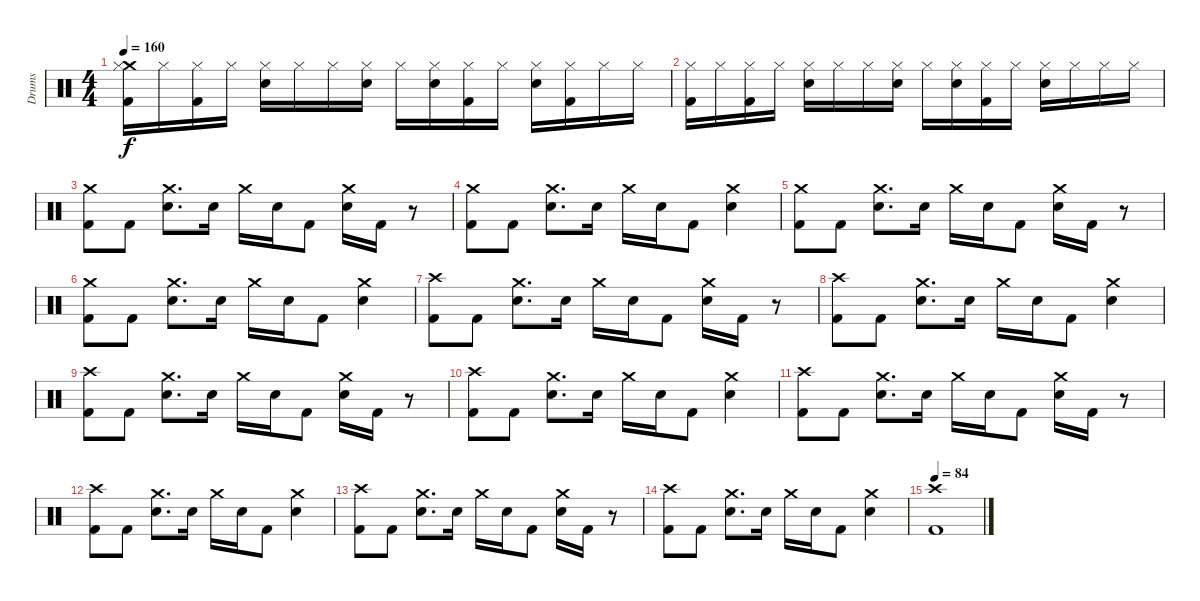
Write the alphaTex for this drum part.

\track ("Drums" "Drums") {instrument percussion}
\staff {score}
\articulation defaults
\ts (4 4)
\tempo 160
\clef neutral
\ks c
("Crash medium (hit)" "Kick (hit) 2" "Hi-Hat (closed)").16{dy f} "Hi-Hat (closed)".16 ("Kick (hit) 2" "Hi-Hat (closed)").16 "Hi-Hat (closed)".16 ("Hi-Hat (closed)" "Electric Snare (hit)").16 "Hi-Hat (closed)".16 "Hi-Hat (closed)".16 ("Electric Snare (hit)" "Hi-Hat (closed)").16 "Hi-Hat (closed)".16 ("Electric Snare (hit)" "Hi-Hat (closed)").16 ("Kick (hit) 2" "Hi-Hat (closed)").16 "Hi-Hat (closed)".16 ("Electric Snare (hit)" "Hi-Hat (closed)").16 ("Kick (hit) 2" "Hi-Hat (closed)").16 "Hi-Hat (closed)".16 "Hi-Hat (closed)".16 |
("Kick (hit) 2" "Hi-Hat (closed)").16 "Hi-Hat (closed)".16 ("Kick (hit) 2" "Hi-Hat (closed)").16 "Hi-Hat (closed)".16 ("Hi-Hat (closed)" "Electric Snare (hit)").16 "Hi-Hat (closed)".16 "Hi-Hat (closed)".16 ("Electric Snare (hit)" "Hi-Hat (closed)").16 "Hi-Hat (closed)".16 ("Electric Snare (hit)" "Hi-Hat (closed)").16 ("Kick (hit) 2" "Hi-Hat (closed)").16 "Hi-Hat (closed)".16 ("Electric Snare (hit)" "Hi-Hat (closed)").16 "Hi-Hat (closed)".16 "Hi-Hat (closed)".16 "Hi-Hat (closed)".16 |
("Crash medium (hit)" "Kick (hit) 2").8 "Kick (hit) 2".8 ("Crash medium (hit)" "Electric Snare (hit)").8{d} "Electric Snare (hit)".16 "Crash medium (hit)".16 "Electric Snare (hit)".16 "Kick (hit) 2".8 ("Crash medium (hit)" "Electric Snare (hit)").16 "Kick (hit) 2".16 r.8 |
("Crash medium (hit)" "Kick (hit) 2").8 "Kick (hit) 2".8 ("Crash medium (hit)" "Electric Snare (hit)").8{d} "Electric Snare (hit)".16 "Crash medium (hit)".16 "Electric Snare (hit)".16 "Kick (hit) 2".8 ("Crash medium (hit)" "Electric Snare (hit)").4 |
("Crash medium (hit)" "Kick (hit) 2").8 "Kick (hit) 2".8 ("Crash medium (hit)" "Electric Snare (hit)").8{d} "Electric Snare (hit)".16 "Crash medium (hit)".16 "Electric Snare (hit)".16 "Kick (hit) 2".8 ("Crash medium (hit)" "Electric Snare (hit)").16 "Kick (hit) 2".16 r.8 |
("Crash medium (hit)" "Kick (hit) 2").8 "Kick (hit) 2".8 ("Crash medium (hit)" "Electric Snare (hit)").8{d} "Electric Snare (hit)".16 "Crash medium (hit)".16 "Electric Snare (hit)".16 "Kick (hit) 2".8 ("Crash medium (hit)" "Electric Snare (hit)").4 |
("Crash high (hit)" "Kick (hit) 2").8 "Kick (hit) 2".8 ("Crash medium (hit)" "Electric Snare (hit)").8{d} "Electric Snare (hit)".16 "Crash medium (hit)".16 "Electric Snare (hit)".16 "Kick (hit) 2".8 ("Crash medium (hit)" "Electric Snare (hit)").16 "Kick (hit) 2".16 r.8 |
("Crash high (hit)" "Kick (hit) 2").8 "Kick (hit) 2".8 ("Crash medium (hit)" "Electric Snare (hit)").8{d} "Electric Snare (hit)".16 "Crash medium (hit)".16 "Electric Snare (hit)".16 "Kick (hit) 2".8 ("Crash medium (hit)" "Electric Snare (hit)").4 |
("Crash high (hit)" "Kick (hit) 2").8 "Kick (hit) 2".8 ("Crash medium (hit)" "Electric Snare (hit)").8{d} "Electric Snare (hit)".16 "Crash medium (hit)".16 "Electric Snare (hit)".16 "Kick (hit) 2".8 ("Crash medium (hit)" "Electric Snare (hit)").16 "Kick (hit) 2".16 r.8 |
("Crash high (hit)" "Kick (hit) 2").8 "Kick (hit) 2".8 ("Crash medium (hit)" "Electric Snare (hit)").8{d} "Electric Snare (hit)".16 "Crash medium (hit)".16 "Electric Snare (hit)".16 "Kick (hit) 2".8 ("Crash medium (hit)" "Electric Snare (hit)").4 |
("Crash high (hit)" "Kick (hit) 2").8 "Kick (hit) 2".8 ("Crash medium (hit)" "Electric Snare (hit)").8{d} "Electric Snare (hit)".16 "Crash medium (hit)".16 "Electric Snare (hit)".16 "Kick (hit) 2".8 ("Crash medium (hit)" "Electric Snare (hit)").16 "Kick (hit) 2".16 r.8 |
("Crash high (hit)" "Kick (hit) 2").8 "Kick (hit) 2".8 ("Crash medium (hit)" "Electric Snare (hit)").8{d} "Electric Snare (hit)".16 "Crash medium (hit)".16 "Electric Snare (hit)".16 "Kick (hit) 2".8 ("Crash medium (hit)" "Electric Snare (hit)").4 |
("Crash high (hit)" "Kick (hit) 2").8 "Kick (hit) 2".8 ("Crash medium (hit)" "Electric Snare (hit)").8{d} "Electric Snare (hit)".16 "Crash medium (hit)".16 "Electric Snare (hit)".16 "Kick (hit) 2".8 ("Crash medium (hit)" "Electric Snare (hit)").16 "Kick (hit) 2".16 r.8 |
("Crash high (hit)" "Kick (hit) 2").8 "Kick (hit) 2".8 ("Crash medium (hit)" "Electric Snare (hit)").8{d} "Electric Snare (hit)".16 "Crash medium (hit)".16 "Electric Snare (hit)".16 "Kick (hit) 2".8 ("Crash medium (hit)" "Electric Snare (hit)").4 |
\tempo 84
("Crash high (hit)" "Kick (hit) 2").1
